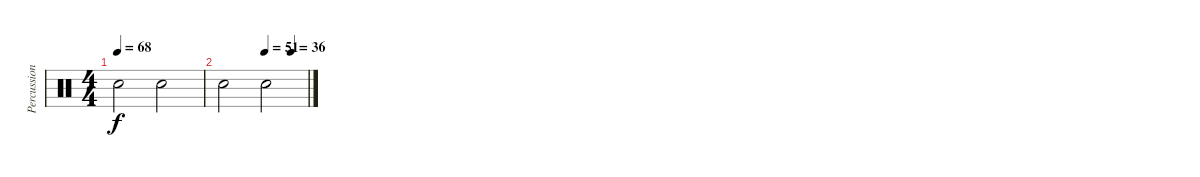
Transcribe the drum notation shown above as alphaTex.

\track ("Percussion" "Percussion") {instrument percussion}
\staff {score}
\articulation defaults
\ts (4 4)
\tempo 68
\clef neutral
\ks c "Electric Snare (hit)".2{dy f} "Electric Snare (hit)".2
|
\tempo (51 0.5)
\tempo (36 0.8125)
"Electric Snare (hit)".2 "Electric Snare (hit)".2
